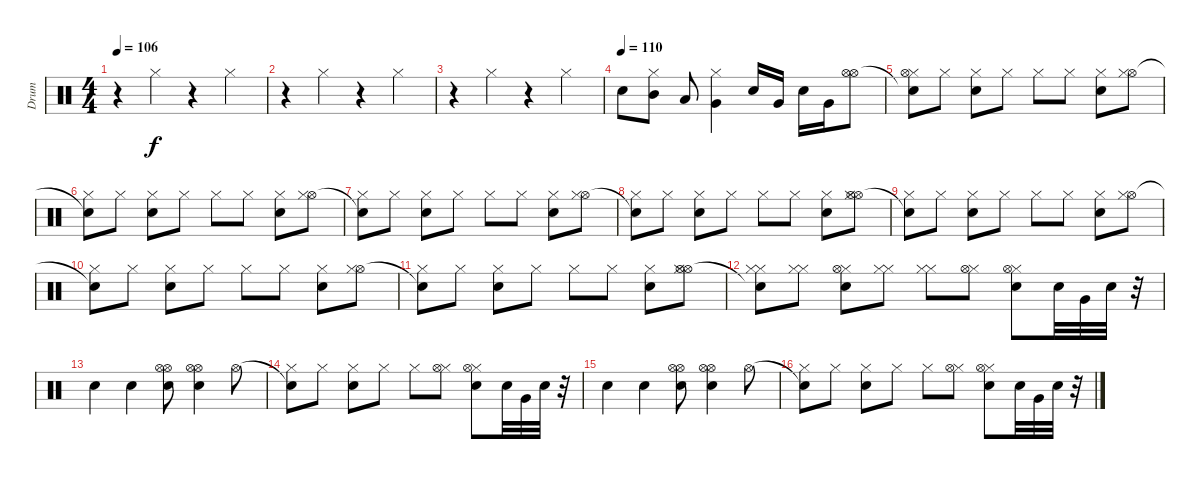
\track ("Drum" "Drum") {instrument percussion}
\staff {score}
\articulation defaults
\ts (4 4)
\tempo 106
\clef neutral
\ks c
r.4{dy f} "Hi-Hat (closed)".4 r.4 "Hi-Hat (closed)".4 |
r.4 "Hi-Hat (closed)".4 r.4 "Hi-Hat (closed)".4 |
r.4 "Hi-Hat (closed)".4 r.4 "Hi-Hat (closed)".4 |
\tempo (110)
"Electric Snare (hit)".8 ("Mid Tom (hit)" "Hi-Hat (closed)").8 "Low Tom (hit)".8 ("Very Low Tom (hit)" "Hi-Hat (closed)").4 "Electric Snare (hit)".16 "Very Low Tom (hit)".16 "Electric Snare (hit)".16 "Very Low Tom (hit)".16 ("Hi-Hat (open)" "Hi-Hat (open)").8 |
("Snare (hit)"{t} "Hi-Hat (closed)" "Hi-Hat (open)").8 "Hi-Hat (closed)".8 ("Electric Snare (hit)" "Hi-Hat (closed)").8 "Hi-Hat (closed)".8 "Hi-Hat (closed)".8 "Hi-Hat (closed)".8 ("Electric Snare (hit)" "Hi-Hat (closed)").8 ("Hi-Hat (open)" "Hi-Hat (closed)").8 |
("Snare (hit)"{t} "Hi-Hat (closed)").8 "Hi-Hat (closed)".8 ("Electric Snare (hit)" "Hi-Hat (closed)").8 "Hi-Hat (closed)".8 "Hi-Hat (closed)".8 "Hi-Hat (closed)".8 ("Electric Snare (hit)" "Hi-Hat (closed)").8 ("Hi-Hat (open)" "Hi-Hat (closed)").8 |
("Snare (hit)"{t} "Hi-Hat (closed)").8 "Hi-Hat (closed)".8 ("Electric Snare (hit)" "Hi-Hat (closed)").8 "Hi-Hat (closed)".8 "Hi-Hat (closed)".8 "Hi-Hat (closed)".8 ("Electric Snare (hit)" "Hi-Hat (closed)").8 ("Hi-Hat (open)" "Hi-Hat (closed)").8 |
("Snare (hit)"{t} "Hi-Hat (closed)").8 "Hi-Hat (closed)".8 ("Electric Snare (hit)" "Hi-Hat (closed)").8 "Hi-Hat (closed)".8 "Hi-Hat (closed)".8 "Hi-Hat (closed)".8 ("Electric Snare (hit)" "Hi-Hat (closed)").8 ("Hi-Hat (open)" "Hi-Hat (closed)" "Hi-Hat (open)").8 |
("Snare (hit)"{t} "Hi-Hat (closed)").8 "Hi-Hat (closed)".8 ("Electric Snare (hit)" "Hi-Hat (closed)").8 "Hi-Hat (closed)".8 "Hi-Hat (closed)".8 "Hi-Hat (closed)".8 ("Electric Snare (hit)" "Hi-Hat (closed)").8 ("Hi-Hat (open)" "Hi-Hat (closed)").8 |
("Snare (hit)"{t} "Hi-Hat (closed)").8 "Hi-Hat (closed)".8 ("Electric Snare (hit)" "Hi-Hat (closed)").8 "Hi-Hat (closed)".8 "Hi-Hat (closed)".8 "Hi-Hat (closed)".8 ("Electric Snare (hit)" "Hi-Hat (closed)").8 ("Hi-Hat (open)" "Hi-Hat (closed)").8 |
("Snare (hit)"{t} "Hi-Hat (closed)").8 "Hi-Hat (closed)".8 ("Electric Snare (hit)" "Hi-Hat (closed)").8 "Hi-Hat (closed)".8 "Hi-Hat (closed)".8 "Hi-Hat (closed)".8 ("Electric Snare (hit)" "Hi-Hat (closed)").8 ("Hi-Hat (open)" "Hi-Hat (closed)" "Hi-Hat (open)").8 |
("Snare (hit)"{t} "Hi-Hat (closed)" "Hi-Hat (closed)").8 ("Hi-Hat (closed)" "Hi-Hat (closed)").8 ("Electric Snare (hit)" "Hi-Hat (closed)" "Hi-Hat (open)").8 ("Hi-Hat (closed)" "Hi-Hat (closed)").8 ("Hi-Hat (closed)" "Hi-Hat (closed)").8 ("Hi-Hat (closed)" "Hi-Hat (open)").8 ("Electric Snare (hit)" "Hi-Hat (closed)" "Hi-Hat (open)").8 "Electric Snare (hit)".32 "Very Low Tom (hit)".32 "Electric Snare (hit)".32 r.32 |
"Electric Snare (hit)".4 "Electric Snare (hit)".4 ("Hi-Hat (open)" "Hi-Hat (open)" "Electric Snare (hit)").8 ("Hi-Hat (open)" "Hi-Hat (open)" "Electric Snare (hit)").4 "Hi-Hat (open)".8 |
("Snare (hit)"{t} "Hi-Hat (closed)").8 "Hi-Hat (closed)".8 ("Electric Snare (hit)" "Hi-Hat (closed)").8 "Hi-Hat (closed)".8 "Hi-Hat (closed)".8 ("Hi-Hat (closed)" "Hi-Hat (open)").8 ("Electric Snare (hit)" "Hi-Hat (closed)" "Hi-Hat (open)").8 "Electric Snare (hit)".32 "Very Low Tom (hit)".32 "Electric Snare (hit)".32 r.32 |
"Electric Snare (hit)".4 "Electric Snare (hit)".4 ("Hi-Hat (open)" "Hi-Hat (open)" "Electric Snare (hit)").8 ("Hi-Hat (open)" "Hi-Hat (open)" "Electric Snare (hit)").4 "Hi-Hat (open)".8 |
("Snare (hit)"{t} "Hi-Hat (closed)").8 "Hi-Hat (closed)".8 ("Electric Snare (hit)" "Hi-Hat (closed)").8 "Hi-Hat (closed)".8 "Hi-Hat (closed)".8 ("Hi-Hat (closed)" "Hi-Hat (open)").8 ("Electric Snare (hit)" "Hi-Hat (closed)" "Hi-Hat (open)").8 "Electric Snare (hit)".32 "Very Low Tom (hit)".32 "Electric Snare (hit)".32 r.32
